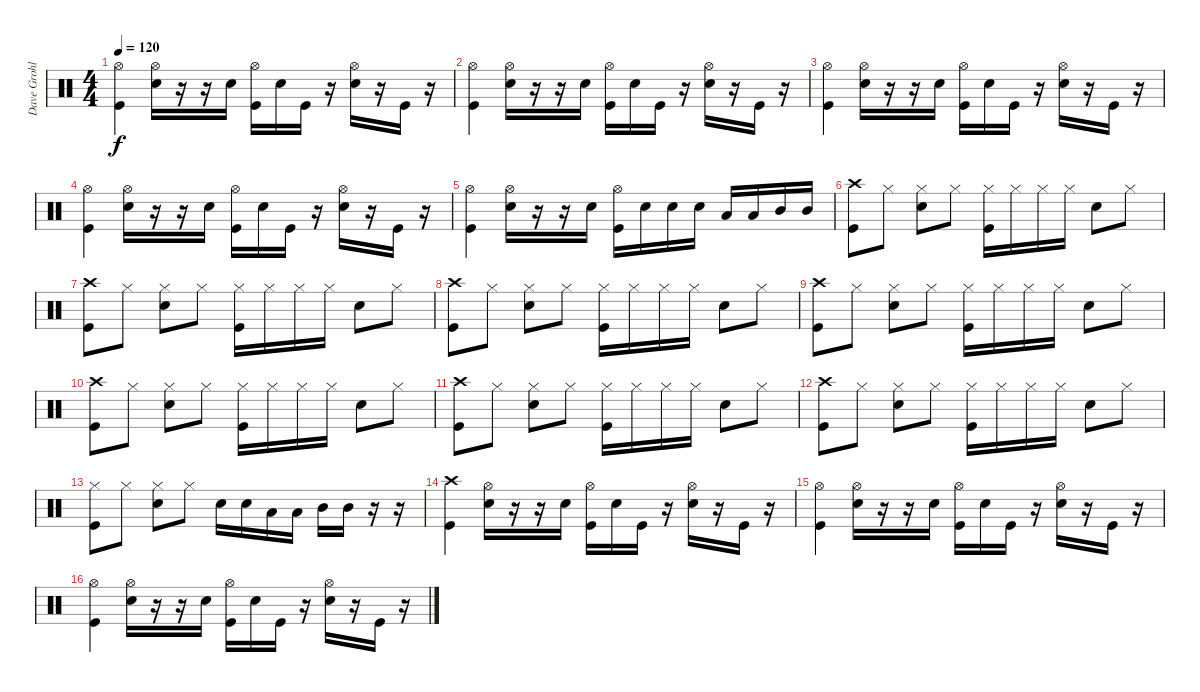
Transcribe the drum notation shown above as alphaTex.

\track ("Dave Grohl (Drums)" "Dave Grohl") {instrument percussion}
\staff {score}
\articulation defaults
\ts (4 4)
\tempo 120
\clef neutral
\ks c
("Hi-Hat (open)" "Kick (hit)").4{dy f} ("Hi-Hat (open)" "Snare (hit) 2").16 r.16 r.16 "Snare (hit) 2".16 ("Hi-Hat (open)" "Kick (hit)").16 "Snare (hit) 2".16 "Kick (hit)".16 r.16 ("Hi-Hat (open)" "Snare (hit) 2").16 r.16 "Kick (hit)".16 r.16 |
("Hi-Hat (open)" "Kick (hit)").4 ("Hi-Hat (open)" "Snare (hit) 2").16 r.16 r.16 "Snare (hit) 2".16 ("Hi-Hat (open)" "Kick (hit)").16 "Snare (hit) 2".16 "Kick (hit)".16 r.16 ("Hi-Hat (open)" "Snare (hit) 2").16 r.16 "Kick (hit)".16 r.16 |
("Hi-Hat (open)" "Kick (hit)").4 ("Hi-Hat (open)" "Snare (hit) 2").16 r.16 r.16 "Snare (hit) 2".16 ("Hi-Hat (open)" "Kick (hit)").16 "Snare (hit) 2".16 "Kick (hit)".16 r.16 ("Hi-Hat (open)" "Snare (hit) 2").16 r.16 "Kick (hit)".16 r.16 |
("Hi-Hat (open)" "Kick (hit)").4 ("Hi-Hat (open)" "Snare (hit) 2").16 r.16 r.16 "Snare (hit) 2".16 ("Hi-Hat (open)" "Kick (hit)").16 "Snare (hit) 2".16 "Kick (hit)".16 r.16 ("Hi-Hat (open)" "Snare (hit) 2").16 r.16 "Kick (hit)".16 r.16 |
("Hi-Hat (open)" "Kick (hit)").4 ("Hi-Hat (open)" "Snare (hit) 2").16 r.16 r.16 "Snare (hit) 2".16 ("Hi-Hat (open)" "Kick (hit)").16 "Snare (hit) 2".16 "Snare (hit) 2".16 "Snare (hit) 2".16 "Low Tom (hit)".16 "Low Tom (hit)".16 "Mid Tom (hit)".16 "Mid Tom (hit)".16 |
("Crash high (hit)" "Kick (hit)").8 "Hi-Hat (closed)".8 ("Hi-Hat (closed)" "Snare (hit) 2").8 "Hi-Hat (closed)".8 ("Hi-Hat (closed)" "Kick (hit)").16 "Hi-Hat (closed)".16 "Hi-Hat (closed)".16 "Hi-Hat (closed)".16 "Snare (hit) 2".8 "Hi-Hat (closed)".8 |
("Crash high (hit)" "Kick (hit)").8 "Hi-Hat (closed)".8 ("Hi-Hat (closed)" "Snare (hit) 2").8 "Hi-Hat (closed)".8 ("Hi-Hat (closed)" "Kick (hit)").16 "Hi-Hat (closed)".16 "Hi-Hat (closed)".16 "Hi-Hat (closed)".16 "Snare (hit) 2".8 "Hi-Hat (closed)".8 |
("Crash high (hit)" "Kick (hit)").8 "Hi-Hat (closed)".8 ("Hi-Hat (closed)" "Snare (hit) 2").8 "Hi-Hat (closed)".8 ("Hi-Hat (closed)" "Kick (hit)").16 "Hi-Hat (closed)".16 "Hi-Hat (closed)".16 "Hi-Hat (closed)".16 "Snare (hit) 2".8 "Hi-Hat (closed)".8 |
("Crash high (hit)" "Kick (hit)").8 "Hi-Hat (closed)".8 ("Hi-Hat (closed)" "Snare (hit) 2").8 "Hi-Hat (closed)".8 ("Hi-Hat (closed)" "Kick (hit)").16 "Hi-Hat (closed)".16 "Hi-Hat (closed)".16 "Hi-Hat (closed)".16 "Snare (hit) 2".8 "Hi-Hat (closed)".8 |
("Crash high (hit)" "Kick (hit)").8 "Hi-Hat (closed)".8 ("Hi-Hat (closed)" "Snare (hit) 2").8 "Hi-Hat (closed)".8 ("Hi-Hat (closed)" "Kick (hit)").16 "Hi-Hat (closed)".16 "Hi-Hat (closed)".16 "Hi-Hat (closed)".16 "Snare (hit) 2".8 "Hi-Hat (closed)".8 |
("Crash high (hit)" "Kick (hit)").8 "Hi-Hat (closed)".8 ("Hi-Hat (closed)" "Snare (hit) 2").8 "Hi-Hat (closed)".8 ("Hi-Hat (closed)" "Kick (hit)").16 "Hi-Hat (closed)".16 "Hi-Hat (closed)".16 "Hi-Hat (closed)".16 "Snare (hit) 2".8 "Hi-Hat (closed)".8 |
("Crash high (hit)" "Kick (hit)").8 "Hi-Hat (closed)".8 ("Hi-Hat (closed)" "Snare (hit) 2").8 "Hi-Hat (closed)".8 ("Hi-Hat (closed)" "Kick (hit)").16 "Hi-Hat (closed)".16 "Hi-Hat (closed)".16 "Hi-Hat (closed)".16 "Snare (hit) 2".8 "Hi-Hat (closed)".8 |
("Hi-Hat (closed)" "Kick (hit)").8 "Hi-Hat (closed)".8 ("Hi-Hat (closed)" "Snare (hit) 2").8 "Hi-Hat (closed)".8 "Snare (hit) 2".16 "Snare (hit) 2".16 "Low Tom (hit)".16 "Low Tom (hit)".16 "Mid Tom (hit)".16 "Mid Tom (hit)".16 r.16 r.16 |
("Crash high (hit)" "Kick (hit)").4 ("Hi-Hat (open)" "Snare (hit) 2").16 r.16 r.16 "Snare (hit) 2".16 ("Hi-Hat (open)" "Kick (hit)").16 "Snare (hit) 2".16 "Kick (hit)".16 r.16 ("Hi-Hat (open)" "Snare (hit) 2").16 r.16 "Kick (hit)".16 r.16 |
("Hi-Hat (open)" "Kick (hit)").4 ("Hi-Hat (open)" "Snare (hit) 2").16 r.16 r.16 "Snare (hit) 2".16 ("Hi-Hat (open)" "Kick (hit)").16 "Snare (hit) 2".16 "Kick (hit)".16 r.16 ("Hi-Hat (open)" "Snare (hit) 2").16 r.16 "Kick (hit)".16 r.16 |
("Hi-Hat (open)" "Kick (hit)").4 ("Hi-Hat (open)" "Snare (hit) 2").16 r.16 r.16 "Snare (hit) 2".16 ("Hi-Hat (open)" "Kick (hit)").16 "Snare (hit) 2".16 "Kick (hit)".16 r.16 ("Hi-Hat (open)" "Snare (hit) 2").16 r.16 "Kick (hit)".16 r.16
